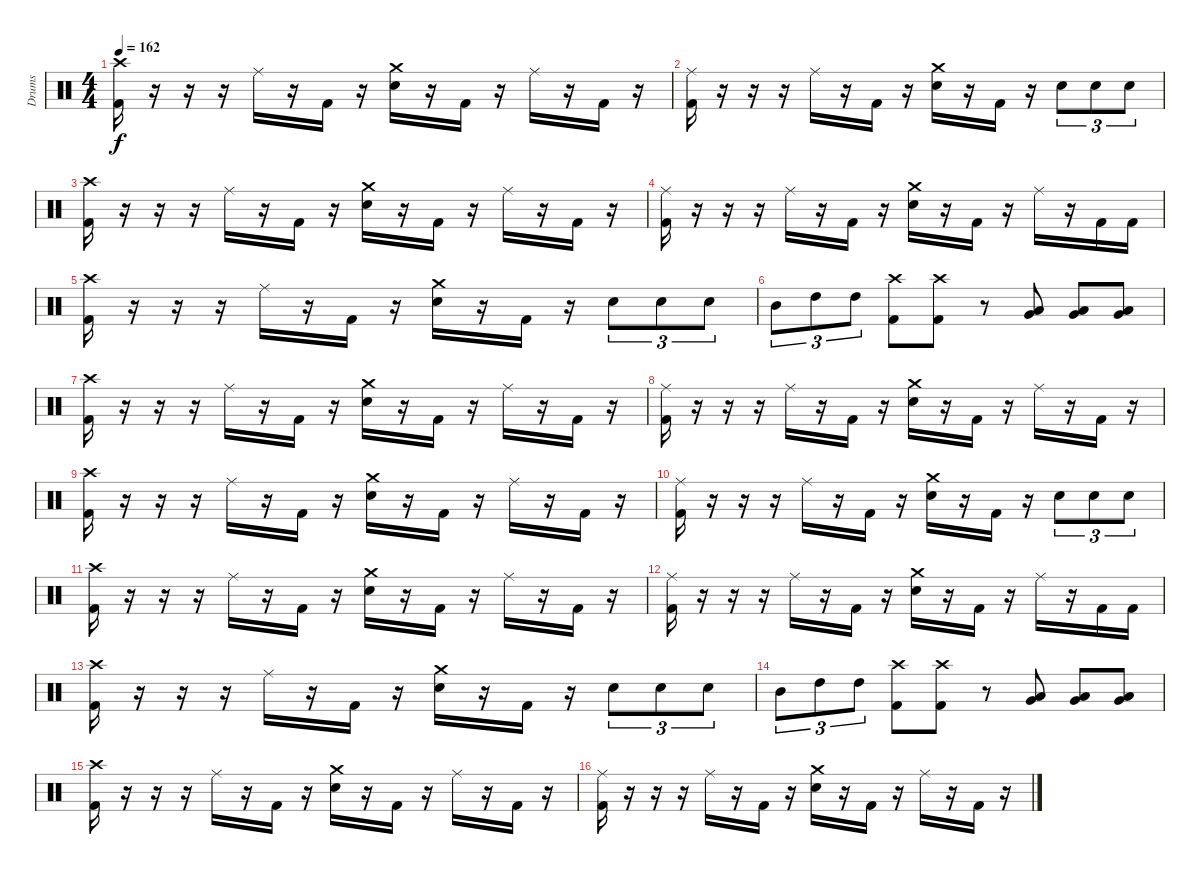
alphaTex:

\track ("Drums" "Drums") {instrument percussion}
\staff {score}
\articulation defaults
\ts (4 4)
\tempo 162
\clef neutral
\ks c
("Crash high (hit)" "Kick (hit) 2").16{dy f} r.16 r.16 r.16 "Ride (middle)".16 r.16 "Kick (hit) 2".16 r.16 ("Crash medium (hit)" "Snare (hit) 2").16 r.16 "Kick (hit) 2".16 r.16 "Ride (middle)".16 r.16 "Kick (hit) 2".16 r.16 |
("Ride (middle)" "Kick (hit) 2").16 r.16 r.16 r.16 "Ride (middle)".16 r.16 "Kick (hit) 2".16 r.16 ("Crash medium (hit)" "Snare (hit) 2").16 r.16 "Kick (hit) 2".16 r.16 "Snare (hit) 2".8{tu (3 2)} "Snare (hit) 2".8{tu (3 2)} "Snare (hit) 2".8{tu (3 2)} |
("Crash high (hit)" "Kick (hit) 2").16 r.16 r.16 r.16 "Ride (middle)".16 r.16 "Kick (hit) 2".16 r.16 ("Crash medium (hit)" "Snare (hit) 2").16 r.16 "Kick (hit) 2".16 r.16 "Ride (middle)".16 r.16 "Kick (hit) 2".16 r.16 |
("Ride (middle)" "Kick (hit) 2").16 r.16 r.16 r.16 "Ride (middle)".16 r.16 "Kick (hit) 2".16 r.16 ("Crash medium (hit)" "Snare (hit) 2").16 r.16 "Kick (hit) 2".16 r.16 "Ride (middle)".16 r.16 "Kick (hit) 2".16 "Kick (hit) 2".16 |
("Crash high (hit)" "Kick (hit) 2").16 r.16 r.16 r.16 "Ride (middle)".16 r.16 "Kick (hit) 2".16 r.16 ("Crash medium (hit)" "Snare (hit) 2").16 r.16 "Kick (hit) 2".16 r.16 "Snare (hit) 2".8{tu (3 2)} "Snare (hit) 2".8{tu (3 2)} "Snare (hit) 2".8{tu (3 2)} |
"Mid Tom (hit)".8{tu (3 2)} "High Tom (hit)".8{tu (3 2)} "High Tom (hit)".8{tu (3 2)} ("Crash high (hit)" "Kick (hit) 2").8 ("Crash high (hit)" "Kick (hit) 2").8 r.8 ("Very Low Tom (hit)" "Low Tom (hit)").8 ("Very Low Tom (hit)" "Low Tom (hit)").8 ("Very Low Tom (hit)" "Low Tom (hit)").8 |
("Crash high (hit)" "Kick (hit) 2").16 r.16 r.16 r.16 "Ride (middle)".16 r.16 "Kick (hit) 2".16 r.16 ("Crash medium (hit)" "Snare (hit) 2").16 r.16 "Kick (hit) 2".16 r.16 "Ride (middle)".16 r.16 "Kick (hit) 2".16 r.16 |
("Ride (middle)" "Kick (hit) 2").16 r.16 r.16 r.16 "Ride (middle)".16 r.16 "Kick (hit) 2".16 r.16 ("Crash medium (hit)" "Snare (hit) 2").16 r.16 "Kick (hit) 2".16 r.16 "Ride (middle)".16 r.16 "Kick (hit) 2".16 r.16 |
("Crash high (hit)" "Kick (hit) 2").16 r.16 r.16 r.16 "Ride (middle)".16 r.16 "Kick (hit) 2".16 r.16 ("Crash medium (hit)" "Snare (hit) 2").16 r.16 "Kick (hit) 2".16 r.16 "Ride (middle)".16 r.16 "Kick (hit) 2".16 r.16 |
("Ride (middle)" "Kick (hit) 2").16 r.16 r.16 r.16 "Ride (middle)".16 r.16 "Kick (hit) 2".16 r.16 ("Crash medium (hit)" "Snare (hit) 2").16 r.16 "Kick (hit) 2".16 r.16 "Snare (hit) 2".8{tu (3 2)} "Snare (hit) 2".8{tu (3 2)} "Snare (hit) 2".8{tu (3 2)} |
("Crash high (hit)" "Kick (hit) 2").16 r.16 r.16 r.16 "Ride (middle)".16 r.16 "Kick (hit) 2".16 r.16 ("Crash medium (hit)" "Snare (hit) 2").16 r.16 "Kick (hit) 2".16 r.16 "Ride (middle)".16 r.16 "Kick (hit) 2".16 r.16 |
("Ride (middle)" "Kick (hit) 2").16 r.16 r.16 r.16 "Ride (middle)".16 r.16 "Kick (hit) 2".16 r.16 ("Crash medium (hit)" "Snare (hit) 2").16 r.16 "Kick (hit) 2".16 r.16 "Ride (middle)".16 r.16 "Kick (hit) 2".16 "Kick (hit) 2".16 |
("Crash high (hit)" "Kick (hit) 2").16 r.16 r.16 r.16 "Ride (middle)".16 r.16 "Kick (hit) 2".16 r.16 ("Crash medium (hit)" "Snare (hit) 2").16 r.16 "Kick (hit) 2".16 r.16 "Snare (hit) 2".8{tu (3 2)} "Snare (hit) 2".8{tu (3 2)} "Snare (hit) 2".8{tu (3 2)} |
"Mid Tom (hit)".8{tu (3 2)} "High Tom (hit)".8{tu (3 2)} "High Tom (hit)".8{tu (3 2)} ("Crash high (hit)" "Kick (hit) 2").8 ("Crash high (hit)" "Kick (hit) 2").8 r.8 ("Very Low Tom (hit)" "Low Tom (hit)").8 ("Very Low Tom (hit)" "Low Tom (hit)").8 ("Very Low Tom (hit)" "Low Tom (hit)").8 |
("Crash high (hit)" "Kick (hit) 2").16 r.16 r.16 r.16 "Ride (middle)".16 r.16 "Kick (hit) 2".16 r.16 ("Crash medium (hit)" "Snare (hit) 2").16 r.16 "Kick (hit) 2".16 r.16 "Ride (middle)".16 r.16 "Kick (hit) 2".16 r.16 |
("Ride (middle)" "Kick (hit) 2").16 r.16 r.16 r.16 "Ride (middle)".16 r.16 "Kick (hit) 2".16 r.16 ("Crash medium (hit)" "Snare (hit) 2").16 r.16 "Kick (hit) 2".16 r.16 "Ride (middle)".16 r.16 "Kick (hit) 2".16 r.16
